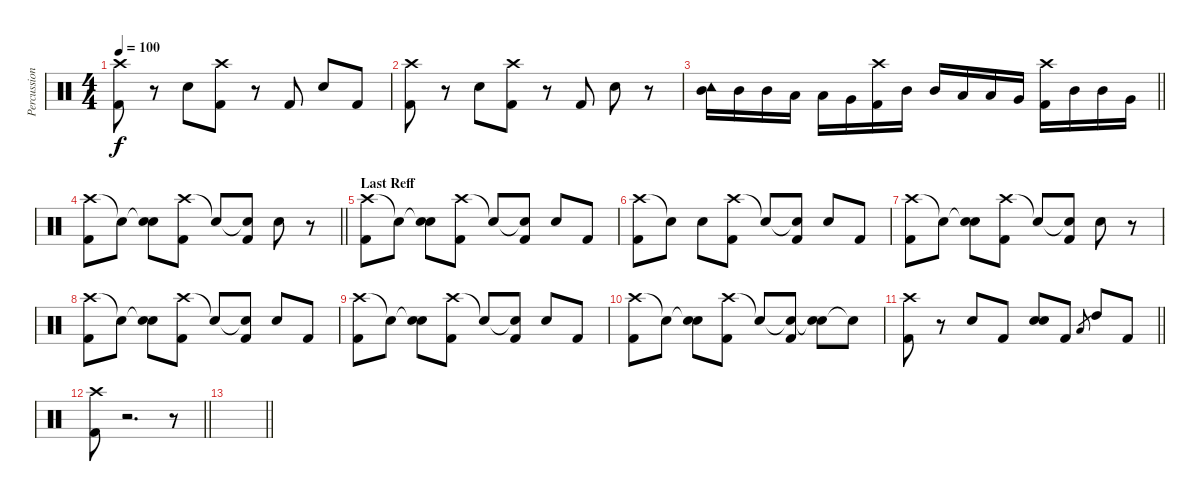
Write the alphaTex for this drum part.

\track ("Percussion(Tomi)" "Percussion") {instrument percussion}
\staff {score}
\articulation defaults
\ts (4 4)
\tempo 100
\clef neutral
\ks c
("Crash high (hit)" "Kick (hit) 2").8{dy f} r.8 "Electric Snare (hit)".8 ("Crash high (hit)" "Kick (hit) 2").8 r.8 "Kick (hit) 2".8 "Electric Snare (hit)".8 "Kick (hit) 2".8 |
("Crash high (hit)" "Kick (hit) 2").8 r.8 "Electric Snare (hit)".8 ("Crash high (hit)" "Kick (hit) 2").8 r.8 "Kick (hit) 2".8 "Electric Snare (hit)".8 r.8 |
\barLineRight lightlight
("Mid Tom (hit)" "Tambourine (hit)").16 "Mid Tom (hit)".16 "Mid Tom (hit)".16 "Low Tom (hit)".16 "Low Tom (hit)".16 "Very Low Tom (hit)".16 ("Crash high (hit)" "Kick (hit) 2").16 "Mid Tom (hit)".16 "Mid Tom (hit)".16 "Low Tom (hit)".16 "Low Tom (hit)".16 "Very Low Tom (hit)".16 ("Crash high (hit)" "Kick (hit) 2").16 "Mid Tom (hit)".16 "Mid Tom (hit)".16 "Very Low Tom (hit)".16 |
\barLineRight lightlight
("Crash high (hit)" "Kick (hit) 2").8 "Snare (hit)"{t}.8 ("Snare (hit)"{t} "Electric Snare (hit)").8 ("Crash high (hit)" "Kick (hit) 2").8 "Snare (hit)"{t}.8 ("Snare (hit)"{t} "Kick (hit) 2").8 "Electric Snare (hit)".8 r.8 |
\section ("" "Last Reff")
("Crash high (hit)" "Kick (hit) 2").8 "Snare (hit)"{t}.8 ("Snare (hit)"{t} "Electric Snare (hit)").8 ("Crash high (hit)" "Kick (hit) 2").8 "Snare (hit)"{t}.8 ("Snare (hit)"{t} "Kick (hit) 2").8 "Electric Snare (hit)".8 "Kick (hit) 2".8 |
("Crash high (hit)" "Kick (hit) 2").8 "Snare (hit)"{t}.8 "Electric Snare (hit)".8 ("Crash high (hit)" "Kick (hit) 2").8 "Snare (hit)"{t}.8 ("Snare (hit)"{t} "Kick (hit) 2").8 "Electric Snare (hit)".8 "Kick (hit) 2".8 |
("Crash high (hit)" "Kick (hit) 2").8 "Snare (hit)"{t}.8 ("Snare (hit)"{t} "Electric Snare (hit)").8 ("Crash high (hit)" "Kick (hit) 2").8 "Snare (hit)"{t}.8 ("Snare (hit)"{t} "Kick (hit) 2").8 "Electric Snare (hit)".8 r.8 |
("Crash high (hit)" "Kick (hit) 2").8 "Snare (hit)"{t}.8 ("Snare (hit)"{t} "Electric Snare (hit)").8 ("Crash high (hit)" "Kick (hit) 2").8 "Snare (hit)"{t}.8 ("Snare (hit)"{t} "Kick (hit) 2").8 "Electric Snare (hit)".8 "Kick (hit) 2".8 |
("Crash high (hit)" "Kick (hit) 2").8 "Snare (hit)"{t}.8 ("Snare (hit)"{t} "Electric Snare (hit)").8 ("Crash high (hit)" "Kick (hit) 2").8 "Snare (hit)"{t}.8 ("Snare (hit)"{t} "Kick (hit) 2").8 "Electric Snare (hit)".8 "Kick (hit) 2".8 |
("Crash high (hit)" "Kick (hit) 2").8 "Snare (hit)"{t}.8 ("Snare (hit)"{t} "Electric Snare (hit)").8 ("Crash high (hit)" "Kick (hit) 2").8 "Snare (hit)"{t}.8 ("Snare (hit)"{t} "Kick (hit) 2").8 ("Snare (hit)"{t} "Electric Snare (hit)").8 "Snare (hit)"{t}.8 |
\barLineRight lightlight
("Crash high (hit)" "Kick (hit) 2").8 r.8 "Electric Snare (hit)".8 "Kick (hit) 2".8 ("Electric Snare (hit)" "Electric Snare (hit)").8{bd 120} "Kick (hit) 2".8 "Low Tom (hit)".8{gr} "High Tom (hit)".8 "Kick (hit) 2".8 |
\barLineRight lightlight
("Crash high (hit)" "Kick (hit) 2").8 r.2{d} r.8 |
\barLineRight lightlight
